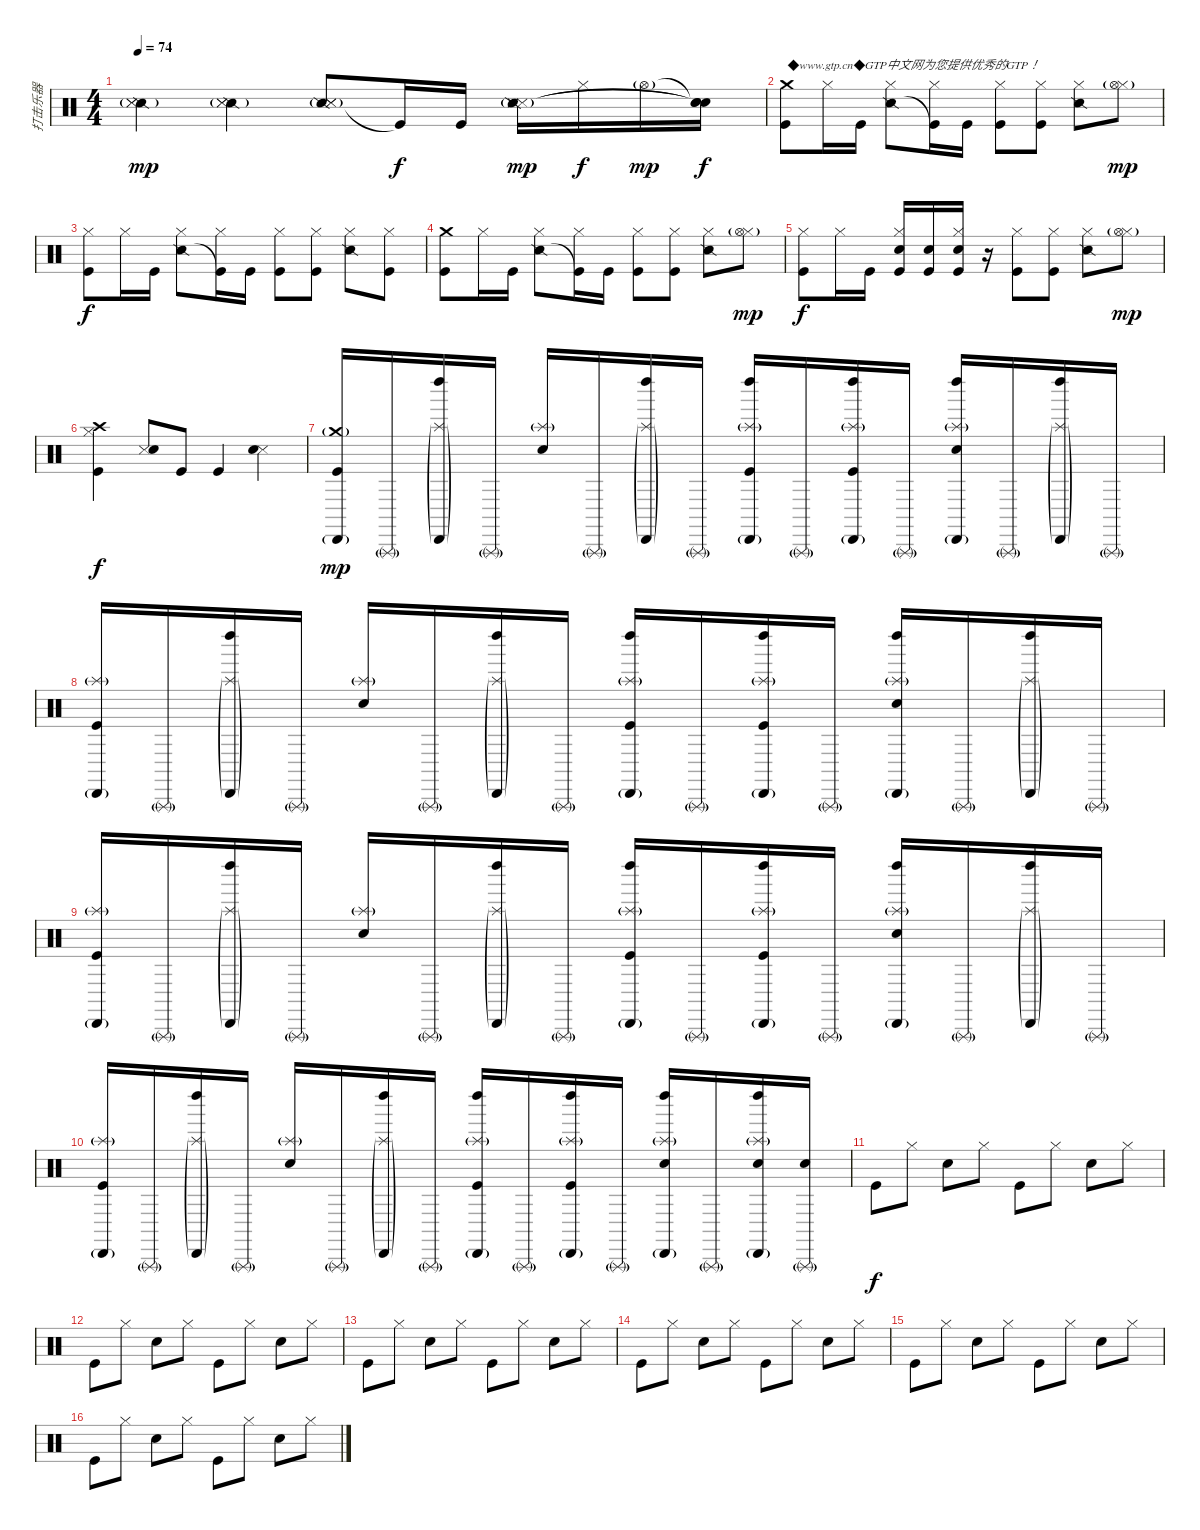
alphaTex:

\track ("打击乐器" "打击乐器") {instrument percussion}
\staff {score}
\articulation defaults
\ts (4 4)
\tempo 74
\clef neutral
\ks c
("Snare (side stick) 2"{g} "Snare (side stick) 3"{g} "Snare (side stick) 3"{g}).4{dy mp} ("Snare (side stick) 2"{g} "Snare (side stick) 3"{g} "Snare (side stick) 3"{g}).4 ("Snare (side stick) 2"{g} "Snare (side stick) 3"{g} "Snare (side stick) 3"{g}).8 "Kick (hit)"{t}.16{dy f} "Kick (hit)".16 ("Snare (side stick) 3"{g} "Snare (side stick) 3"{g} "Snare (side stick) 3"{g} "Snare (side stick) 2"{g}).16{dy mp} "Hi-Hat (closed)".16{dy f} "Hi-Hat (open)"{g}.16{dy mp} ("Snare (hit)"{t} "Snare (hit)"{t} "Snare (hit)"{t}).16{dy f} |
("Crash medium (hit)" "Kick (hit)").8{txt "◆www.gtp.cn◆GTP中文网为您提供优秀的GTP！"} "Hi-Hat (closed)".16 "Kick (hit)".16 ("Hi-Hat (closed)" "Snare (side stick) 2").8 ("Hi-Hat (closed)" "Kick (hit)"{t}).16 "Kick (hit)".16 ("Hi-Hat (closed)" "Kick (hit)").8 ("Hi-Hat (closed)" "Kick (hit)").8 ("Hi-Hat (closed)" "Snare (side stick) 2").8 ("Hi-Hat (closed)" "Hi-Hat (open)"{g}).8{dy mp} |
("Hi-Hat (closed)" "Kick (hit)").8{dy f} "Hi-Hat (closed)".16 "Kick (hit)".16 ("Hi-Hat (closed)" "Snare (side stick) 2").8 ("Hi-Hat (closed)" "Kick (hit)"{t}).16 "Kick (hit)".16 ("Hi-Hat (closed)" "Kick (hit)").8 ("Hi-Hat (closed)" "Kick (hit)").8 ("Hi-Hat (closed)" "Snare (side stick) 2").8 ("Hi-Hat (closed)" "Kick (hit)").8 |
("Crash medium (hit)" "Kick (hit)").8 "Hi-Hat (closed)".16 "Kick (hit)".16 ("Hi-Hat (closed)" "Snare (side stick) 2").8 ("Hi-Hat (closed)" "Kick (hit)"{t}).16 "Kick (hit)".16 ("Hi-Hat (closed)" "Kick (hit)").8 ("Hi-Hat (closed)" "Kick (hit)").8 ("Hi-Hat (closed)" "Snare (side stick) 2").8 ("Hi-Hat (closed)" "Hi-Hat (open)"{g}).8{dy mp} |
("Hi-Hat (closed)" "Kick (hit)").8{dy f} "Hi-Hat (closed)".16 "Kick (hit)".16 ("Hi-Hat (closed)" "Electric Snare (hit)" "Kick (hit)").16 ("Electric Snare (hit)" "Kick (hit)").16 ("Hi-Hat (closed)" "Electric Snare (hit)" "Kick (hit)").16 r.16 ("Hi-Hat (closed)" "Kick (hit)").8 ("Hi-Hat (closed)" "Kick (hit)").8 ("Hi-Hat (closed)" "Snare (side stick) 2").8 ("Hi-Hat (closed)" "Hi-Hat (open)"{g}).8{dy mp} |
("Crash high (hit)" "Hi-Hat (closed)" "Kick (hit)").4{dy f} ("Snare (side stick) 3" "Electric Snare (hit)").8 "Kick (hit)".8 "Kick (hit)".4 ("Snare (side stick) 3" "Electric Snare (hit)").4 |
("Crash medium (hit)"{g} "Cabasa (hit)"{g} "Kick (hit)").16{dy mp} "Triangle (rnute)"{g}.16 ("Splash (hit)"{g} "Left Maraca (hit)" "Cabasa (hit)"{g}).16 "Triangle (rnute)"{g}.16 ("Splash (hit)"{g} "Electric Snare (hit)").16 "Triangle (rnute)"{g}.16 ("Splash (hit)"{g} "Left Maraca (hit)" "Cabasa (hit)"{g}).16 "Triangle (rnute)"{g}.16 ("Splash (hit)"{g} "Left Maraca (hit)" "Cabasa (hit)"{g} "Kick (hit)").16 "Triangle (rnute)"{g}.16 ("Splash (hit)"{g} "Left Maraca (hit)" "Cabasa (hit)"{g} "Kick (hit)").16 "Triangle (rnute)"{g}.16 ("Splash (hit)"{g} "Left Maraca (hit)" "Cabasa (hit)"{g} "Electric Snare (hit)").16 "Triangle (rnute)"{g}.16 ("Splash (hit)"{g} "Left Maraca (hit)" "Cabasa (hit)"{g}).16 "Triangle (rnute)"{g}.16 |
("Splash (hit)"{g} "Cabasa (hit)"{g} "Kick (hit)").16 "Triangle (rnute)"{g}.16 ("Splash (hit)"{g} "Left Maraca (hit)" "Cabasa (hit)"{g}).16 "Triangle (rnute)"{g}.16 ("Splash (hit)"{g} "Electric Snare (hit)").16 "Triangle (rnute)"{g}.16 ("Splash (hit)"{g} "Left Maraca (hit)" "Cabasa (hit)"{g}).16 "Triangle (rnute)"{g}.16 ("Splash (hit)"{g} "Left Maraca (hit)" "Cabasa (hit)"{g} "Kick (hit)").16 "Triangle (rnute)"{g}.16 ("Splash (hit)"{g} "Left Maraca (hit)" "Cabasa (hit)"{g} "Kick (hit)").16 "Triangle (rnute)"{g}.16 ("Splash (hit)"{g} "Left Maraca (hit)" "Cabasa (hit)"{g} "Electric Snare (hit)").16 "Triangle (rnute)"{g}.16 ("Splash (hit)"{g} "Left Maraca (hit)" "Cabasa (hit)"{g}).16 "Triangle (rnute)"{g}.16 |
("Splash (hit)"{g} "Cabasa (hit)"{g} "Kick (hit)").16 "Triangle (rnute)"{g}.16 ("Splash (hit)"{g} "Left Maraca (hit)" "Cabasa (hit)"{g}).16 "Triangle (rnute)"{g}.16 ("Splash (hit)"{g} "Electric Snare (hit)").16 "Triangle (rnute)"{g}.16 ("Splash (hit)"{g} "Left Maraca (hit)" "Cabasa (hit)"{g}).16 "Triangle (rnute)"{g}.16 ("Splash (hit)"{g} "Left Maraca (hit)" "Cabasa (hit)"{g} "Kick (hit)").16 "Triangle (rnute)"{g}.16 ("Splash (hit)"{g} "Left Maraca (hit)" "Cabasa (hit)"{g} "Kick (hit)").16 "Triangle (rnute)"{g}.16 ("Splash (hit)"{g} "Left Maraca (hit)" "Cabasa (hit)"{g} "Electric Snare (hit)").16 "Triangle (rnute)"{g}.16 ("Splash (hit)"{g} "Left Maraca (hit)" "Cabasa (hit)"{g}).16 "Triangle (rnute)"{g}.16 |
("Splash (hit)"{g} "Cabasa (hit)"{g} "Kick (hit)").16 "Triangle (rnute)"{g}.16 ("Splash (hit)"{g} "Left Maraca (hit)" "Cabasa (hit)"{g}).16 "Triangle (rnute)"{g}.16 ("Splash (hit)"{g} "Electric Snare (hit)").16 "Triangle (rnute)"{g}.16 ("Splash (hit)"{g} "Left Maraca (hit)" "Cabasa (hit)"{g}).16 "Triangle (rnute)"{g}.16 ("Splash (hit)"{g} "Left Maraca (hit)" "Cabasa (hit)"{g} "Kick (hit)").16 "Triangle (rnute)"{g}.16 ("Splash (hit)"{g} "Left Maraca (hit)" "Cabasa (hit)"{g} "Kick (hit)").16 "Triangle (rnute)"{g}.16 ("Splash (hit)"{g} "Left Maraca (hit)" "Cabasa (hit)"{g} "Electric Snare (hit)").16 "Triangle (rnute)"{g}.16 ("Splash (hit)"{g} "Left Maraca (hit)" "Cabasa (hit)"{g} "Electric Snare (hit)").16 ("Triangle (rnute)"{g} "Electric Snare (hit)").16 |
"Kick (hit)".8{dy f} "Hi-Hat (closed)".8 "Electric Snare (hit)".8 "Hi-Hat (closed)".8 "Kick (hit)".8 "Hi-Hat (closed)".8 "Electric Snare (hit)".8 "Hi-Hat (closed)".8 |
"Kick (hit)".8 "Hi-Hat (closed)".8 "Electric Snare (hit)".8 "Hi-Hat (closed)".8 "Kick (hit)".8 "Hi-Hat (closed)".8 "Electric Snare (hit)".8 "Hi-Hat (closed)".8 |
"Kick (hit)".8 "Hi-Hat (closed)".8 "Electric Snare (hit)".8 "Hi-Hat (closed)".8 "Kick (hit)".8 "Hi-Hat (closed)".8 "Electric Snare (hit)".8 "Hi-Hat (closed)".8 |
"Kick (hit)".8 "Hi-Hat (closed)".8 "Electric Snare (hit)".8 "Hi-Hat (closed)".8 "Kick (hit)".8 "Hi-Hat (closed)".8 "Electric Snare (hit)".8 "Hi-Hat (closed)".8 |
"Kick (hit)".8 "Hi-Hat (closed)".8 "Electric Snare (hit)".8 "Hi-Hat (closed)".8 "Kick (hit)".8 "Hi-Hat (closed)".8 "Electric Snare (hit)".8 "Hi-Hat (closed)".8 |
"Kick (hit)".8 "Hi-Hat (closed)".8 "Electric Snare (hit)".8 "Hi-Hat (closed)".8 "Kick (hit)".8 "Hi-Hat (closed)".8 "Electric Snare (hit)".8 "Hi-Hat (closed)".8
